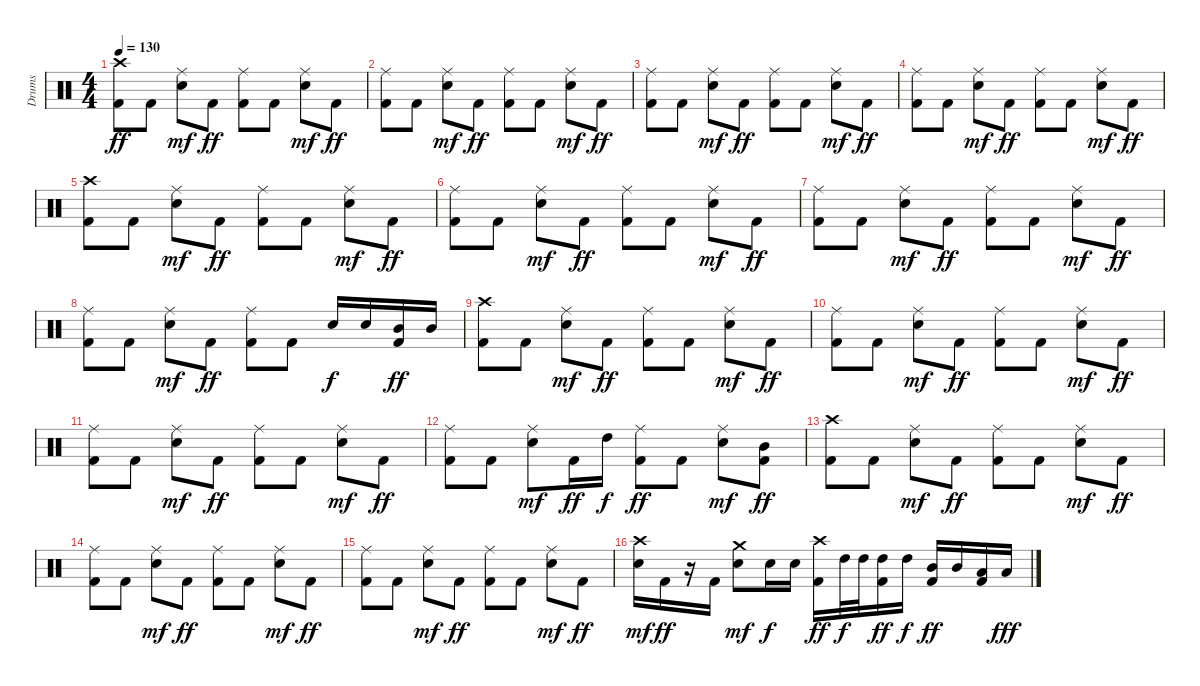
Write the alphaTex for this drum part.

\track ("Drums" "Drums") {instrument percussion}
\staff {score}
\articulation defaults
\ts (4 4)
\tempo 130
\clef neutral
\ks c
("Crash high (hit)" "Kick (hit) 2").8{dy ff} "Kick (hit) 2".8 ("Ride (middle)" "Electric Snare (hit)").8{dy mf} "Kick (hit) 2".8{dy ff} ("Ride (middle)" "Kick (hit) 2").8 "Kick (hit) 2".8 ("Ride (middle)" "Electric Snare (hit)").8{dy mf} "Kick (hit) 2".8{dy ff} |
("Ride (middle)" "Kick (hit) 2").8 "Kick (hit) 2".8 ("Ride (middle)" "Electric Snare (hit)").8{dy mf} "Kick (hit) 2".8{dy ff} ("Ride (middle)" "Kick (hit) 2").8 "Kick (hit) 2".8 ("Ride (middle)" "Electric Snare (hit)").8{dy mf} "Kick (hit) 2".8{dy ff} |
("Ride (middle)" "Kick (hit) 2").8 "Kick (hit) 2".8 ("Ride (middle)" "Electric Snare (hit)").8{dy mf} "Kick (hit) 2".8{dy ff} ("Ride (middle)" "Kick (hit) 2").8 "Kick (hit) 2".8 ("Ride (middle)" "Electric Snare (hit)").8{dy mf} "Kick (hit) 2".8{dy ff} |
("Ride (middle)" "Kick (hit) 2").8 "Kick (hit) 2".8 ("Ride (middle)" "Electric Snare (hit)").8{dy mf} "Kick (hit) 2".8{dy ff} ("Ride (middle)" "Kick (hit) 2").8 "Kick (hit) 2".8 ("Ride (middle)" "Electric Snare (hit)").8{dy mf} "Kick (hit) 2".8{dy ff} |
("Crash high (hit)" "Kick (hit) 2").8 "Kick (hit) 2".8 ("Ride (middle)" "Electric Snare (hit)").8{dy mf} "Kick (hit) 2".8{dy ff} ("Ride (middle)" "Kick (hit) 2").8 "Kick (hit) 2".8 ("Ride (middle)" "Electric Snare (hit)").8{dy mf} "Kick (hit) 2".8{dy ff} |
("Ride (middle)" "Kick (hit) 2").8 "Kick (hit) 2".8 ("Ride (middle)" "Electric Snare (hit)").8{dy mf} "Kick (hit) 2".8{dy ff} ("Ride (middle)" "Kick (hit) 2").8 "Kick (hit) 2".8 ("Ride (middle)" "Electric Snare (hit)").8{dy mf} "Kick (hit) 2".8{dy ff} |
("Ride (middle)" "Kick (hit) 2").8 "Kick (hit) 2".8 ("Ride (middle)" "Electric Snare (hit)").8{dy mf} "Kick (hit) 2".8{dy ff} ("Ride (middle)" "Kick (hit) 2").8 "Kick (hit) 2".8 ("Ride (middle)" "Electric Snare (hit)").8{dy mf} "Kick (hit) 2".8{dy ff} |
("Ride (middle)" "Kick (hit) 2").8 "Kick (hit) 2".8 ("Ride (middle)" "Electric Snare (hit)").8{dy mf} "Kick (hit) 2".8{dy ff} ("Ride (middle)" "Kick (hit) 2").8 "Kick (hit) 2".8 "Electric Snare (hit)".16{dy f} "Electric Snare (hit)".16 ("Mid Tom (hit)" "Kick (hit) 2").16{dy ff} "Mid Tom (hit)".16 |
\section ("" "")
("Crash high (hit)" "Kick (hit) 2").8 "Kick (hit) 2".8 ("Ride (middle)" "Electric Snare (hit)").8{dy mf} "Kick (hit) 2".8{dy ff} ("Ride (middle)" "Kick (hit) 2").8 "Kick (hit) 2".8 ("Ride (middle)" "Electric Snare (hit)").8{dy mf} "Kick (hit) 2".8{dy ff} |
("Ride (middle)" "Kick (hit) 2").8 "Kick (hit) 2".8 ("Ride (middle)" "Electric Snare (hit)").8{dy mf} "Kick (hit) 2".8{dy ff} ("Ride (middle)" "Kick (hit) 2").8 "Kick (hit) 2".8 ("Ride (middle)" "Electric Snare (hit)").8{dy mf} "Kick (hit) 2".8{dy ff} |
("Ride (middle)" "Kick (hit) 2").8 "Kick (hit) 2".8 ("Ride (middle)" "Electric Snare (hit)").8{dy mf} "Kick (hit) 2".8{dy ff} ("Ride (middle)" "Kick (hit) 2").8 "Kick (hit) 2".8 ("Ride (middle)" "Electric Snare (hit)").8{dy mf} "Kick (hit) 2".8{dy ff} |
("Ride (middle)" "Kick (hit) 2").8 "Kick (hit) 2".8 ("Ride (middle)" "Electric Snare (hit)").8{dy mf} "Kick (hit) 2".16{dy ff} "High Tom (hit)".16{dy f} ("Ride (middle)" "Kick (hit) 2").8{dy ff} "Kick (hit) 2".8 ("Ride (middle)" "Electric Snare (hit)").8{dy mf} ("Mid Tom (hit)" "Kick (hit) 2").8{dy ff} |
("Crash high (hit)" "Kick (hit) 2").8 "Kick (hit) 2".8 ("Ride (middle)" "Electric Snare (hit)").8{dy mf} "Kick (hit) 2".8{dy ff} ("Ride (middle)" "Kick (hit) 2").8 "Kick (hit) 2".8 ("Ride (middle)" "Electric Snare (hit)").8{dy mf} "Kick (hit) 2".8{dy ff} |
("Ride (middle)" "Kick (hit) 2").8 "Kick (hit) 2".8 ("Ride (middle)" "Electric Snare (hit)").8{dy mf} "Kick (hit) 2".8{dy ff} ("Ride (middle)" "Kick (hit) 2").8 "Kick (hit) 2".8 ("Ride (middle)" "Electric Snare (hit)").8{dy mf} "Kick (hit) 2".8{dy ff} |
("Ride (middle)" "Kick (hit) 2").8 "Kick (hit) 2".8 ("Ride (middle)" "Electric Snare (hit)").8{dy mf} "Kick (hit) 2".8{dy ff} ("Ride (middle)" "Kick (hit) 2").8 "Kick (hit) 2".8 ("Ride (middle)" "Electric Snare (hit)").8{dy mf} "Kick (hit) 2".8{dy ff} |
("Crash high (hit)" "Electric Snare (hit)").16{dy mf} "Kick (hit) 2".16{dy ff} r.16 "Kick (hit) 2".16 ("Crash medium (hit)" "Electric Snare (hit)").8{dy mf} "Electric Snare (hit)".16{dy f} "Electric Snare (hit)".16 ("Crash high (hit)" "Kick (hit) 2").16{dy ff} "High Tom (hit)".32{dy f} "High Tom (hit)".32 ("High Tom (hit)" "Kick (hit) 2").16{dy ff} "High Tom (hit)".16{dy f} ("Mid Tom (hit)" "Kick (hit) 2").16{dy ff} "Mid Tom (hit)".16 ("Low Tom (hit)" "Kick (hit) 2").16 "Low Tom (hit)".16{dy fff}
